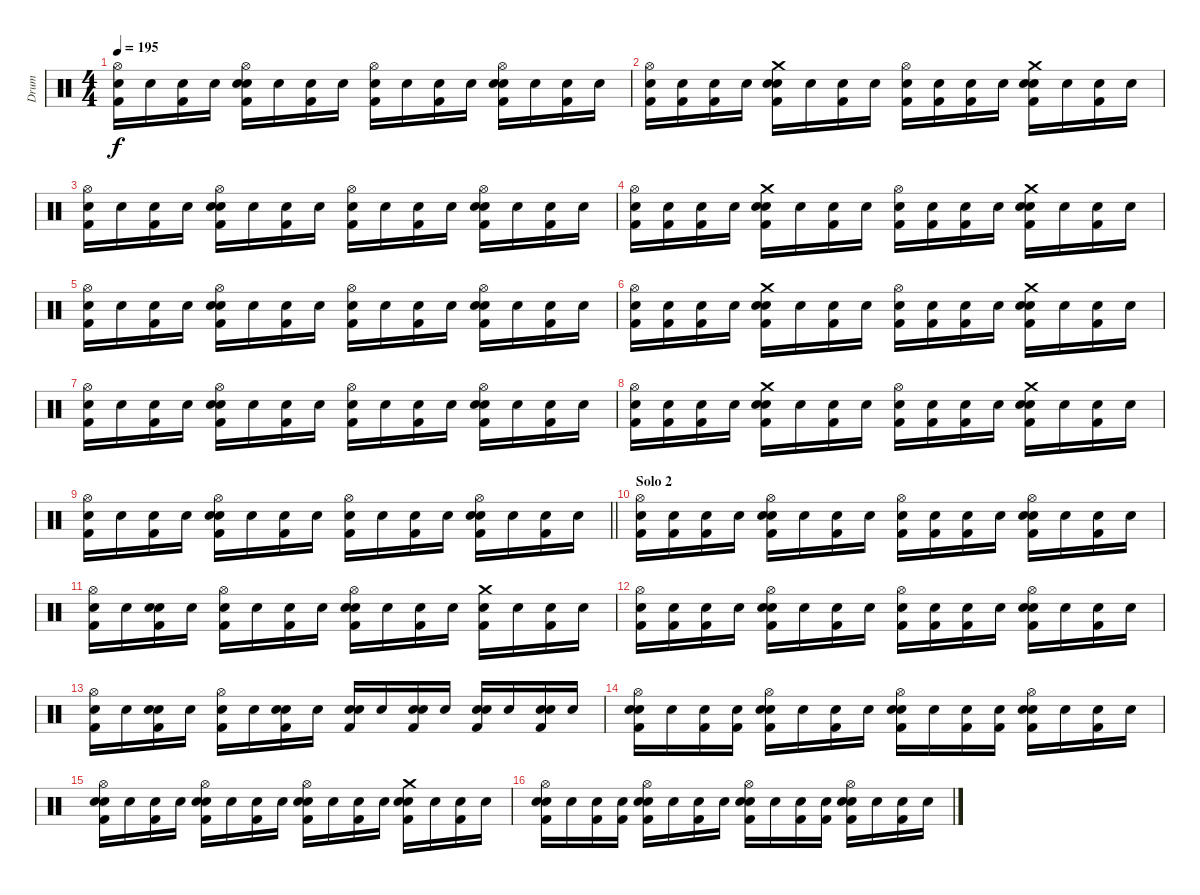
\track ("Drum" "Drum") {instrument percussion}
\staff {score}
\articulation defaults
\ts (4 4)
\tempo 195
\clef neutral
\ks c
("Hi-Hat (open)" "Snare (hit)" "Kick (hit) 2").16{dy f} "Snare (hit)".16 ("Snare (hit)" "Kick (hit) 2").16 "Snare (hit)".16 ("Hi-Hat (open)" "Snare (hit) 2" "Snare (hit)" "Kick (hit) 2").16 "Snare (hit)".16 ("Snare (hit)" "Kick (hit) 2").16 "Snare (hit)".16 ("Hi-Hat (open)" "Snare (hit)" "Kick (hit) 2").16 "Snare (hit)".16 ("Snare (hit)" "Kick (hit) 2").16 "Snare (hit)".16 ("Hi-Hat (open)" "Snare (hit) 2" "Snare (hit)" "Kick (hit) 2").16 "Snare (hit)".16 ("Snare (hit)" "Kick (hit) 2").16 "Snare (hit)".16 |
("Hi-Hat (open)" "Snare (hit)" "Kick (hit) 2").16 ("Snare (hit)" "Kick (hit) 2").16 ("Snare (hit)" "Kick (hit) 2").16 "Snare (hit)".16 ("Crash medium (hit)" "Snare (hit) 2" "Snare (hit)" "Kick (hit) 2").16 "Snare (hit)".16 ("Snare (hit)" "Kick (hit) 2").16 "Snare (hit)".16 ("Hi-Hat (open)" "Snare (hit)" "Kick (hit) 2").16 ("Snare (hit)" "Kick (hit) 2").16 ("Snare (hit)" "Kick (hit) 2").16 "Snare (hit)".16 ("Crash medium (hit)" "Snare (hit) 2" "Snare (hit)" "Kick (hit) 2").16 "Snare (hit)".16 ("Snare (hit)" "Kick (hit) 2").16 "Snare (hit)".16 |
("Hi-Hat (open)" "Snare (hit)" "Kick (hit) 2").16 "Snare (hit)".16 ("Snare (hit)" "Kick (hit) 2").16 "Snare (hit)".16 ("Hi-Hat (open)" "Snare (hit) 2" "Snare (hit)" "Kick (hit) 2").16 "Snare (hit)".16 ("Snare (hit)" "Kick (hit) 2").16 "Snare (hit)".16 ("Hi-Hat (open)" "Snare (hit)" "Kick (hit) 2").16 "Snare (hit)".16 ("Snare (hit)" "Kick (hit) 2").16 "Snare (hit)".16 ("Hi-Hat (open)" "Snare (hit) 2" "Snare (hit)" "Kick (hit) 2").16 "Snare (hit)".16 ("Snare (hit)" "Kick (hit) 2").16 "Snare (hit)".16 |
("Hi-Hat (open)" "Snare (hit)" "Kick (hit) 2").16 ("Snare (hit)" "Kick (hit) 2").16 ("Snare (hit)" "Kick (hit) 2").16 "Snare (hit)".16 ("Crash medium (hit)" "Snare (hit) 2" "Snare (hit)" "Kick (hit) 2").16 "Snare (hit)".16 ("Snare (hit)" "Kick (hit) 2").16 "Snare (hit)".16 ("Hi-Hat (open)" "Snare (hit)" "Kick (hit) 2").16 ("Snare (hit)" "Kick (hit) 2").16 ("Snare (hit)" "Kick (hit) 2").16 "Snare (hit)".16 ("Crash medium (hit)" "Snare (hit) 2" "Snare (hit)" "Kick (hit) 2").16 "Snare (hit)".16 ("Snare (hit)" "Kick (hit) 2").16 "Snare (hit)".16 |
("Hi-Hat (open)" "Snare (hit)" "Kick (hit) 2").16 "Snare (hit)".16 ("Snare (hit)" "Kick (hit) 2").16 "Snare (hit)".16 ("Hi-Hat (open)" "Snare (hit) 2" "Snare (hit)" "Kick (hit) 2").16 "Snare (hit)".16 ("Snare (hit)" "Kick (hit) 2").16 "Snare (hit)".16 ("Hi-Hat (open)" "Snare (hit)" "Kick (hit) 2").16 "Snare (hit)".16 ("Snare (hit)" "Kick (hit) 2").16 "Snare (hit)".16 ("Hi-Hat (open)" "Snare (hit) 2" "Snare (hit)" "Kick (hit) 2").16 "Snare (hit)".16 ("Snare (hit)" "Kick (hit) 2").16 "Snare (hit)".16 |
("Hi-Hat (open)" "Snare (hit)" "Kick (hit) 2").16 ("Snare (hit)" "Kick (hit) 2").16 ("Snare (hit)" "Kick (hit) 2").16 "Snare (hit)".16 ("Crash medium (hit)" "Snare (hit) 2" "Snare (hit)" "Kick (hit) 2").16 "Snare (hit)".16 ("Snare (hit)" "Kick (hit) 2").16 "Snare (hit)".16 ("Hi-Hat (open)" "Snare (hit)" "Kick (hit) 2").16 ("Snare (hit)" "Kick (hit) 2").16 ("Snare (hit)" "Kick (hit) 2").16 "Snare (hit)".16 ("Crash medium (hit)" "Snare (hit) 2" "Snare (hit)" "Kick (hit) 2").16 "Snare (hit)".16 ("Snare (hit)" "Kick (hit) 2").16 "Snare (hit)".16 |
("Hi-Hat (open)" "Snare (hit)" "Kick (hit) 2").16 "Snare (hit)".16 ("Snare (hit)" "Kick (hit) 2").16 "Snare (hit)".16 ("Hi-Hat (open)" "Snare (hit) 2" "Snare (hit)" "Kick (hit) 2").16 "Snare (hit)".16 ("Snare (hit)" "Kick (hit) 2").16 "Snare (hit)".16 ("Hi-Hat (open)" "Snare (hit)" "Kick (hit) 2").16 "Snare (hit)".16 ("Snare (hit)" "Kick (hit) 2").16 "Snare (hit)".16 ("Hi-Hat (open)" "Snare (hit) 2" "Snare (hit)" "Kick (hit) 2").16 "Snare (hit)".16 ("Snare (hit)" "Kick (hit) 2").16 "Snare (hit)".16 |
("Hi-Hat (open)" "Snare (hit)" "Kick (hit) 2").16 ("Snare (hit)" "Kick (hit) 2").16 ("Snare (hit)" "Kick (hit) 2").16 "Snare (hit)".16 ("Crash medium (hit)" "Snare (hit) 2" "Snare (hit)" "Kick (hit) 2").16 "Snare (hit)".16 ("Snare (hit)" "Kick (hit) 2").16 "Snare (hit)".16 ("Hi-Hat (open)" "Snare (hit)" "Kick (hit) 2").16 ("Snare (hit)" "Kick (hit) 2").16 ("Snare (hit)" "Kick (hit) 2").16 "Snare (hit)".16 ("Crash medium (hit)" "Snare (hit) 2" "Snare (hit)" "Kick (hit) 2").16 "Snare (hit)".16 ("Snare (hit)" "Kick (hit) 2").16 "Snare (hit)".16 |
\barLineRight lightlight
("Hi-Hat (open)" "Snare (hit)" "Kick (hit) 2").16 "Snare (hit)".16 ("Snare (hit)" "Kick (hit) 2").16 "Snare (hit)".16 ("Hi-Hat (open)" "Snare (hit) 2" "Snare (hit)" "Kick (hit) 2").16 "Snare (hit)".16 ("Snare (hit)" "Kick (hit) 2").16 "Snare (hit)".16 ("Hi-Hat (open)" "Snare (hit)" "Kick (hit) 2").16 "Snare (hit)".16 ("Snare (hit)" "Kick (hit) 2").16 "Snare (hit)".16 ("Hi-Hat (open)" "Snare (hit) 2" "Snare (hit)" "Kick (hit) 2").16 "Snare (hit)".16 ("Snare (hit)" "Kick (hit) 2").16 "Snare (hit)".16 |
\section ("" "Solo 2")
("Hi-Hat (open)" "Snare (hit)" "Kick (hit) 2").16 ("Snare (hit)" "Kick (hit) 2").16 ("Snare (hit)" "Kick (hit) 2").16 "Snare (hit)".16 ("Hi-Hat (open)" "Snare (hit) 2" "Snare (hit)" "Kick (hit) 2").16 "Snare (hit)".16 ("Snare (hit)" "Kick (hit) 2").16 "Snare (hit)".16 ("Hi-Hat (open)" "Snare (hit)" "Kick (hit) 2").16 ("Snare (hit)" "Kick (hit) 2").16 ("Snare (hit)" "Kick (hit) 2").16 "Snare (hit)".16 ("Hi-Hat (open)" "Snare (hit) 2" "Snare (hit)" "Kick (hit) 2").16 "Snare (hit)".16 ("Snare (hit)" "Kick (hit) 2").16 "Snare (hit)".16 |
("Hi-Hat (open)" "Snare (hit)" "Kick (hit) 2").16 "Snare (hit)".16 ("Snare (hit) 2" "Snare (hit)" "Kick (hit) 2").16 "Snare (hit)".16 ("Hi-Hat (open)" "Snare (hit)" "Kick (hit) 2").16 "Snare (hit)".16 ("Snare (hit)" "Kick (hit) 2").16 "Snare (hit)".16 ("Hi-Hat (open)" "Snare (hit) 2" "Snare (hit)" "Kick (hit) 2").16 "Snare (hit)".16 ("Snare (hit)" "Kick (hit) 2").16 "Snare (hit)".16 ("Crash medium (hit)" "Snare (hit)" "Kick (hit) 2").16 "Snare (hit)".16 ("Snare (hit)" "Kick (hit) 2").16 "Snare (hit)".16 |
("Hi-Hat (open)" "Snare (hit)" "Kick (hit) 2").16 ("Snare (hit)" "Kick (hit) 2").16 ("Snare (hit)" "Kick (hit) 2").16 "Snare (hit)".16 ("Hi-Hat (open)" "Snare (hit) 2" "Snare (hit)" "Kick (hit) 2").16 "Snare (hit)".16 ("Snare (hit)" "Kick (hit) 2").16 "Snare (hit)".16 ("Hi-Hat (open)" "Snare (hit)" "Kick (hit) 2").16 ("Snare (hit)" "Kick (hit) 2").16 ("Snare (hit)" "Kick (hit) 2").16 "Snare (hit)".16 ("Hi-Hat (open)" "Snare (hit) 2" "Snare (hit)" "Kick (hit) 2").16 "Snare (hit)".16 ("Snare (hit)" "Kick (hit) 2").16 "Snare (hit)".16 |
("Hi-Hat (open)" "Snare (hit)" "Kick (hit) 2").16 "Snare (hit)".16 ("Snare (hit) 2" "Snare (hit)" "Kick (hit) 2").16 "Snare (hit)".16 ("Hi-Hat (open)" "Snare (hit)" "Kick (hit) 2").16 "Snare (hit)".16 ("Snare (hit) 2" "Snare (hit)" "Kick (hit) 2").16 "Snare (hit)".16 ("Snare (hit) 2" "Snare (hit)" "Kick (hit) 2").16 "Snare (hit)".16 ("Snare (hit) 2" "Snare (hit)" "Kick (hit) 2").16 "Snare (hit)".16 ("Snare (hit) 2" "Snare (hit)" "Kick (hit) 2").16 "Snare (hit)".16 ("Snare (hit) 2" "Snare (hit)" "Kick (hit) 2").16 "Snare (hit)".16 |
("Hi-Hat (open)" "Snare (hit) 2" "Snare (hit)" "Kick (hit) 2").16 "Snare (hit)".16 ("Snare (hit)" "Kick (hit) 2").16 ("Snare (hit)" "Kick (hit) 2").16 ("Hi-Hat (open)" "Snare (hit) 2" "Snare (hit)" "Kick (hit) 2").16 "Snare (hit)".16 ("Snare (hit)" "Kick (hit) 2").16 "Snare (hit)".16 ("Hi-Hat (open)" "Snare (hit) 2" "Snare (hit)" "Kick (hit) 2").16 "Snare (hit)".16 ("Snare (hit)" "Kick (hit) 2").16 ("Snare (hit)" "Kick (hit) 2").16 ("Hi-Hat (open)" "Snare (hit) 2" "Snare (hit)" "Kick (hit) 2").16 "Snare (hit)".16 ("Snare (hit)" "Kick (hit) 2").16 "Snare (hit)".16 |
("Hi-Hat (open)" "Snare (hit) 2" "Snare (hit)" "Kick (hit) 2").16 "Snare (hit)".16 ("Snare (hit)" "Kick (hit) 2").16 "Snare (hit)".16 ("Hi-Hat (open)" "Snare (hit) 2" "Snare (hit)" "Kick (hit) 2").16 "Snare (hit)".16 ("Snare (hit)" "Kick (hit) 2").16 "Snare (hit)".16 ("Hi-Hat (open)" "Snare (hit) 2" "Snare (hit)" "Kick (hit) 2").16 "Snare (hit)".16 ("Snare (hit)" "Kick (hit) 2").16 "Snare (hit)".16 ("Crash medium (hit)" "Snare (hit) 2" "Snare (hit)" "Kick (hit) 2").16 "Snare (hit)".16 ("Snare (hit)" "Kick (hit) 2").16 "Snare (hit)".16 |
("Hi-Hat (open)" "Snare (hit) 2" "Snare (hit)" "Kick (hit) 2").16 "Snare (hit)".16 ("Snare (hit)" "Kick (hit) 2").16 ("Snare (hit)" "Kick (hit) 2").16 ("Hi-Hat (open)" "Snare (hit) 2" "Snare (hit)" "Kick (hit) 2").16 "Snare (hit)".16 ("Snare (hit)" "Kick (hit) 2").16 "Snare (hit)".16 ("Hi-Hat (open)" "Snare (hit) 2" "Snare (hit)" "Kick (hit) 2").16 "Snare (hit)".16 ("Snare (hit)" "Kick (hit) 2").16 ("Snare (hit)" "Kick (hit) 2").16 ("Hi-Hat (open)" "Snare (hit) 2" "Snare (hit)" "Kick (hit) 2").16 "Snare (hit)".16 ("Snare (hit)" "Kick (hit) 2").16 "Snare (hit)".16
